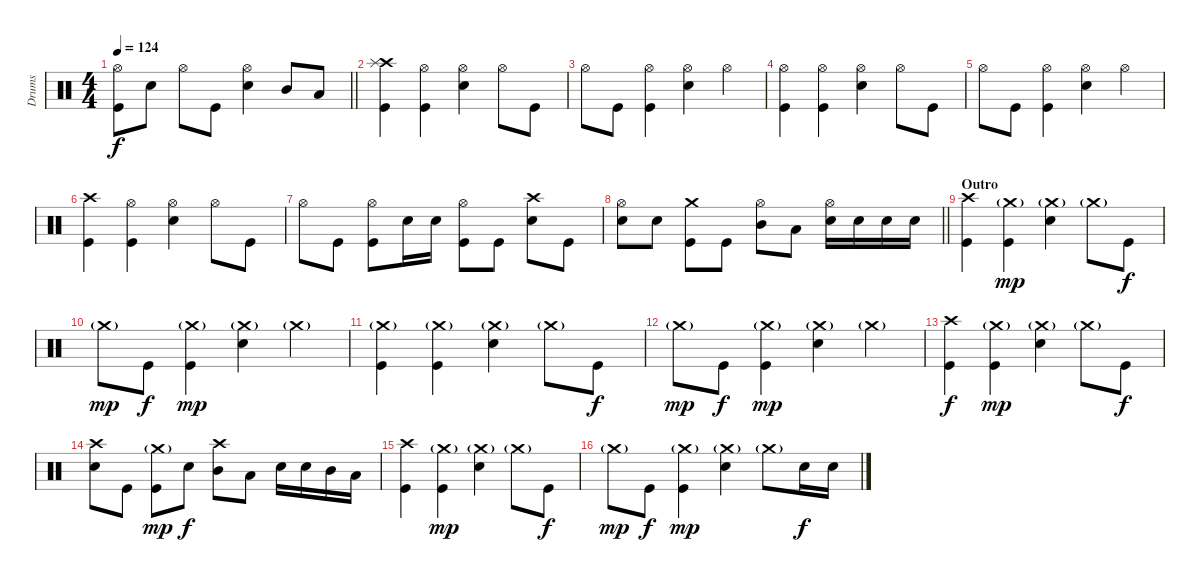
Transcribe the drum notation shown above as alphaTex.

\track ("Drums" "Drums") {instrument percussion}
\staff {score}
\articulation defaults
\ts (4 4)
\tempo 124
\clef neutral
\barLineRight lightlight
\ks c
("Hi-Hat (open)" "Kick (hit)").8{dy f} "Snare (hit) 2".8 "Hi-Hat (open)".8 "Kick (hit)".8 ("Hi-Hat (open)" "Snare (hit) 2").4 "Mid Tom (hit)".8 "Low Tom (hit)".8 |
("Crash high (hit)" "Splash (hit)" "Kick (hit)").4 ("Hi-Hat (open)" "Kick (hit)").4 ("Hi-Hat (open)" "Snare (hit) 2").4 "Hi-Hat (open)".8 "Kick (hit)".8 |
"Hi-Hat (open)".8 "Kick (hit)".8 ("Hi-Hat (open)" "Kick (hit)").4 ("Hi-Hat (open)" "Snare (hit) 2").4 "Hi-Hat (open)".4 |
("Hi-Hat (open)" "Kick (hit)").4 ("Hi-Hat (open)" "Kick (hit)").4 ("Hi-Hat (open)" "Snare (hit) 2").4 "Hi-Hat (open)".8 "Kick (hit)".8 |
"Hi-Hat (open)".8 "Kick (hit)".8 ("Hi-Hat (open)" "Kick (hit)").4 ("Hi-Hat (open)" "Snare (hit) 2").4 "Hi-Hat (open)".4 |
("Crash high (hit)" "Kick (hit)").4 ("Hi-Hat (open)" "Kick (hit)").4 ("Hi-Hat (open)" "Snare (hit) 2").4 "Hi-Hat (open)".8 "Kick (hit)".8 |
"Hi-Hat (open)".8 "Kick (hit)".8 ("Hi-Hat (open)" "Kick (hit)").8 "Snare (hit) 2".16 "Snare (hit) 2".16 ("Hi-Hat (open)" "Kick (hit)").8 "Kick (hit)".8 ("Crash high (hit)" "Snare (hit) 2").8 "Kick (hit)".8 |
\barLineRight lightlight
("Hi-Hat (open)" "Snare (hit) 2").8 "Snare (hit) 2".8 ("Crash medium (hit)" "Kick (hit)").8 "Kick (hit)".8 ("Hi-Hat (open)" "Mid Tom (hit)").8 "Low Tom (hit)".8 ("Hi-Hat (open)" "Snare (hit) 2").16 "Snare (hit) 2".16 "Snare (hit) 2".16 "Snare (hit) 2".16 |
\section ("" "Outro")
("Crash high (hit)" "Kick (hit)").4 ("Crash medium (hit)"{g} "Kick (hit)").4{dy mp} ("Crash medium (hit)"{g} "Snare (hit) 2").4 "Crash medium (hit)"{g}.8 "Kick (hit)".8{dy f} |
"Crash medium (hit)"{g}.8{dy mp} "Kick (hit)".8{dy f} ("Crash medium (hit)"{g} "Kick (hit)").4{dy mp} ("Crash medium (hit)"{g} "Snare (hit) 2").4 "Crash medium (hit)"{g}.4 |
("Crash medium (hit)"{g} "Kick (hit)").4 ("Crash medium (hit)"{g} "Kick (hit)").4 ("Crash medium (hit)"{g} "Snare (hit) 2").4 "Crash medium (hit)"{g}.8 "Kick (hit)".8{dy f} |
"Crash medium (hit)"{g}.8{dy mp} "Kick (hit)".8{dy f} ("Crash medium (hit)"{g} "Kick (hit)").4{dy mp} ("Crash medium (hit)"{g} "Snare (hit) 2").4 "Crash medium (hit)"{g}.4 |
("Crash high (hit)" "Kick (hit)").4{dy f} ("Crash medium (hit)"{g} "Kick (hit)").4{dy mp} ("Crash medium (hit)"{g} "Snare (hit) 2").4 "Crash medium (hit)"{g}.8 "Kick (hit)".8{dy f} |
("Crash high (hit)" "Snare (hit) 2").8 "Kick (hit)".8 ("Crash medium (hit)"{g} "Kick (hit)").8{dy mp} "Snare (hit) 2".8{dy f} ("Crash high (hit)" "Mid Tom (hit)").8 "Low Tom (hit)".8 "Snare (hit) 2".16 "Snare (hit) 2".16 "Mid Tom (hit)".16 "Low Tom (hit)".16 |
("Crash high (hit)" "Kick (hit)").4 ("Crash medium (hit)"{g} "Kick (hit)").4{dy mp} ("Crash medium (hit)"{g} "Snare (hit) 2").4 "Crash medium (hit)"{g}.8 "Kick (hit)".8{dy f} |
"Crash medium (hit)"{g}.8{dy mp} "Kick (hit)".8{dy f} ("Crash medium (hit)"{g} "Kick (hit)").4{dy mp} ("Crash medium (hit)"{g} "Snare (hit) 2").4 "Crash medium (hit)"{g}.8 "Snare (hit) 2".16{dy f} "Snare (hit) 2".16
